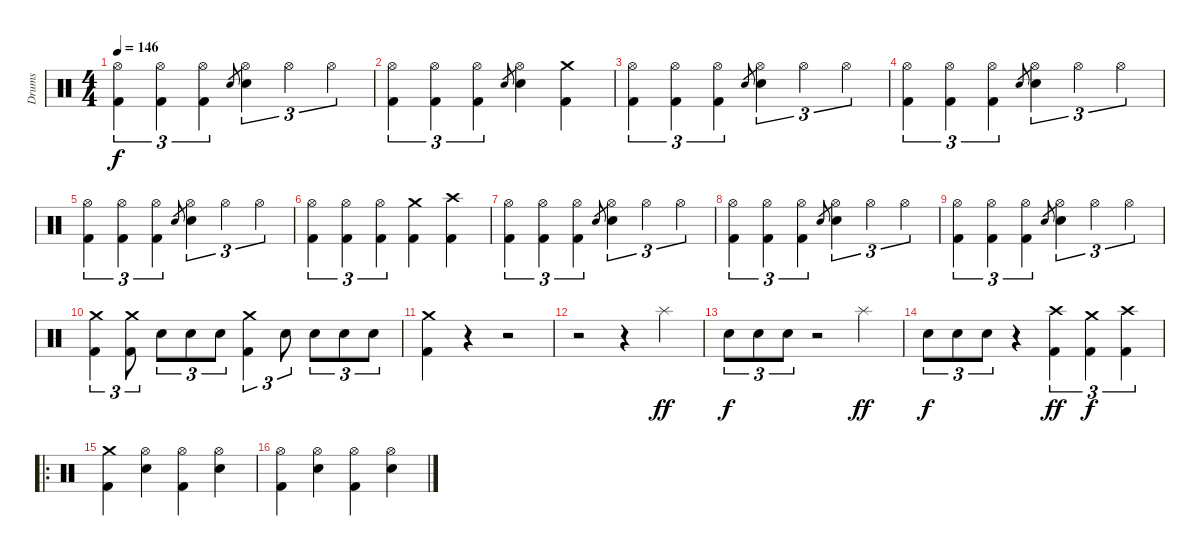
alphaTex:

\track ("Drums" "Drums") {instrument percussion}
\staff {score}
\articulation defaults
\ts (4 4)
\tempo 146
\clef neutral
\ks c
("Hi-Hat (open)" "Kick (hit) 2").4{tu (3 2) dy f} ("Hi-Hat (open)" "Kick (hit) 2").4{tu (3 2)} ("Hi-Hat (open)" "Kick (hit) 2").4{tu (3 2)} "Snare (hit) 2".8{gr} ("Hi-Hat (open)" "Snare (hit) 2").4{tu (3 2)} "Hi-Hat (open)".4{tu (3 2)} "Hi-Hat (open)".4{tu (3 2)} |
("Hi-Hat (open)" "Kick (hit) 2").4{tu (3 2)} ("Hi-Hat (open)" "Kick (hit) 2").4{tu (3 2)} ("Hi-Hat (open)" "Kick (hit) 2").4{tu (3 2)} "Snare (hit) 2".8{gr} ("Hi-Hat (open)" "Snare (hit) 2").4 ("Crash medium (hit)" "Kick (hit) 2").4 |
("Hi-Hat (open)" "Kick (hit) 2").4{tu (3 2)} ("Hi-Hat (open)" "Kick (hit) 2").4{tu (3 2)} ("Hi-Hat (open)" "Kick (hit) 2").4{tu (3 2)} "Snare (hit) 2".8{gr} ("Hi-Hat (open)" "Snare (hit) 2").4{tu (3 2)} "Hi-Hat (open)".4{tu (3 2)} "Hi-Hat (open)".4{tu (3 2)} |
("Hi-Hat (open)" "Kick (hit) 2").4{tu (3 2)} ("Hi-Hat (open)" "Kick (hit) 2").4{tu (3 2)} ("Hi-Hat (open)" "Kick (hit) 2").4{tu (3 2)} "Snare (hit) 2".8{gr} ("Hi-Hat (open)" "Snare (hit) 2").4{tu (3 2)} "Hi-Hat (open)".4{tu (3 2)} "Hi-Hat (open)".4{tu (3 2)} |
("Hi-Hat (open)" "Kick (hit) 2").4{tu (3 2)} ("Hi-Hat (open)" "Kick (hit) 2").4{tu (3 2)} ("Hi-Hat (open)" "Kick (hit) 2").4{tu (3 2)} "Snare (hit) 2".8{gr} ("Hi-Hat (open)" "Snare (hit) 2").4{tu (3 2)} "Hi-Hat (open)".4{tu (3 2)} "Hi-Hat (open)".4{tu (3 2)} |
("Hi-Hat (open)" "Kick (hit) 2").4{tu (3 2)} ("Hi-Hat (open)" "Kick (hit) 2").4{tu (3 2)} ("Hi-Hat (open)" "Kick (hit) 2").4{tu (3 2)} ("Crash medium (hit)" "Kick (hit) 2").4 ("Crash high (hit)" "Kick (hit) 2").4 |
("Hi-Hat (open)" "Kick (hit) 2").4{tu (3 2)} ("Hi-Hat (open)" "Kick (hit) 2").4{tu (3 2)} ("Hi-Hat (open)" "Kick (hit) 2").4{tu (3 2)} "Snare (hit) 2".8{gr} ("Hi-Hat (open)" "Snare (hit) 2").4{tu (3 2)} "Hi-Hat (open)".4{tu (3 2)} "Hi-Hat (open)".4{tu (3 2)} |
("Hi-Hat (open)" "Kick (hit) 2").4{tu (3 2)} ("Hi-Hat (open)" "Kick (hit) 2").4{tu (3 2)} ("Hi-Hat (open)" "Kick (hit) 2").4{tu (3 2)} "Snare (hit) 2".8{gr} ("Hi-Hat (open)" "Snare (hit) 2").4{tu (3 2)} "Hi-Hat (open)".4{tu (3 2)} "Hi-Hat (open)".4{tu (3 2)} |
("Hi-Hat (open)" "Kick (hit) 2").4{tu (3 2)} ("Hi-Hat (open)" "Kick (hit) 2").4{tu (3 2)} ("Hi-Hat (open)" "Kick (hit) 2").4{tu (3 2)} "Snare (hit) 2".8{gr} ("Hi-Hat (open)" "Snare (hit) 2").4{tu (3 2)} "Hi-Hat (open)".4{tu (3 2)} "Hi-Hat (open)".4{tu (3 2)} |
("Crash medium (hit)" "Kick (hit) 2").4{tu (3 2)} ("Crash medium (hit)" "Kick (hit) 2").8{tu (3 2)} "Snare (hit) 2".8{tu (3 2)} "Snare (hit) 2".8{tu (3 2)} "Snare (hit) 2".8{tu (3 2)} ("Crash medium (hit)" "Kick (hit) 2").4{tu (3 2)} "Snare (hit) 2".8{tu (3 2)} "Snare (hit) 2".8{tu (3 2)} "Snare (hit) 2".8{tu (3 2)} "Snare (hit) 2".8{tu (3 2)} |
("Crash medium (hit)" "Kick (hit) 2").4 r.4 r.2 |
r.2 r.4 "Splash (hit)".4{dy ff} |
"Snare (hit) 2".8{tu (3 2) dy f} "Snare (hit) 2".8{tu (3 2)} "Snare (hit) 2".8{tu (3 2)} r.2 "Splash (hit)".4{dy ff} |
"Snare (hit) 2".8{tu (3 2) dy f} "Snare (hit) 2".8{tu (3 2)} "Snare (hit) 2".8{tu (3 2)} r.4 ("Crash high (hit)" "Kick (hit) 2").4{tu (3 2) dy ff} ("Crash medium (hit)" "Kick (hit) 2").4{tu (3 2) dy f} ("Crash high (hit)" "Kick (hit) 2").4{tu (3 2)} |
\ro
("Crash medium (hit)" "Kick (hit) 2").4 ("Hi-Hat (open)" "Snare (hit) 2").4 ("Hi-Hat (open)" "Kick (hit) 2").4 ("Hi-Hat (open)" "Snare (hit) 2").4 |
("Hi-Hat (open)" "Kick (hit) 2").4 ("Hi-Hat (open)" "Snare (hit) 2").4 ("Hi-Hat (open)" "Kick (hit) 2").4 ("Hi-Hat (open)" "Snare (hit) 2").4
